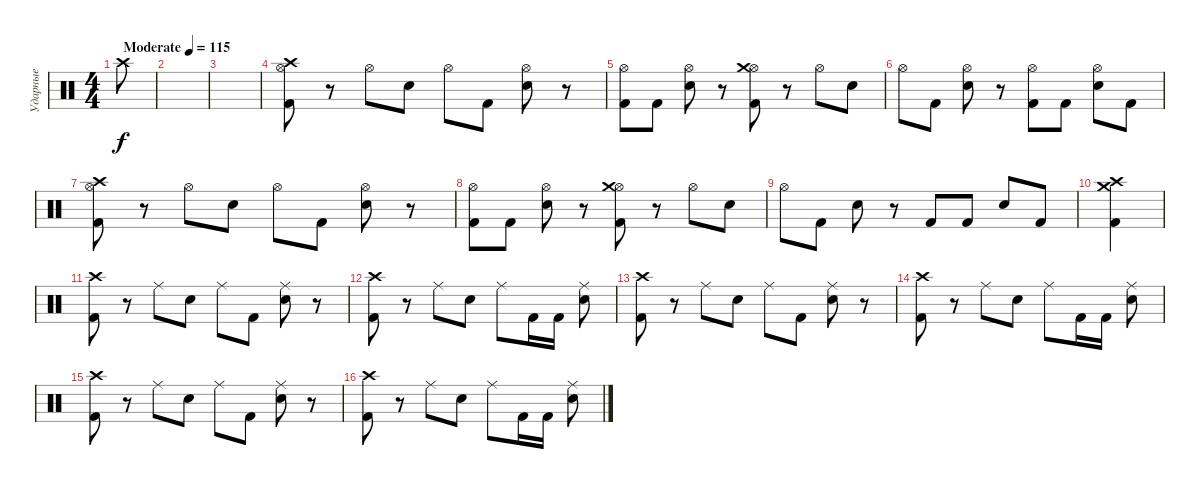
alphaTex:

\track ("Ударные" "Ударные") {instrument percussion}
\staff {score}
\articulation defaults
\ts (4 4)
\tempo (115 "Moderate")
\clef neutral
\ks c "Crash high (hit)".8{dy f}
|
|
|
("Kick (hit) 2" "Hi-Hat (open)" "Crash high (hit)").8 r.8 "Hi-Hat (open)".8 "Electric Snare (hit)".8 "Hi-Hat (open)".8 "Kick (hit) 2".8 ("Electric Snare (hit)" "Hi-Hat (open)").8 r.8 |
("Kick (hit) 2" "Hi-Hat (open)").8 "Kick (hit) 2".8 ("Electric Snare (hit)" "Hi-Hat (open)").8 r.8 ("Kick (hit) 2" "Hi-Hat (open)" "Crash medium (hit)").8 r.8 "Hi-Hat (open)".8 "Electric Snare (hit)".8 |
"Hi-Hat (open)".8 "Kick (hit) 2".8 ("Electric Snare (hit)" "Hi-Hat (open)").8 r.8 ("Kick (hit) 2" "Hi-Hat (open)").8 "Kick (hit) 2".8 ("Electric Snare (hit)" "Hi-Hat (open)").8 "Kick (hit) 2".8 |
("Kick (hit) 2" "Hi-Hat (open)" "Crash high (hit)").8 r.8 "Hi-Hat (open)".8 "Electric Snare (hit)".8 "Hi-Hat (open)".8 "Kick (hit) 2".8 ("Electric Snare (hit)" "Hi-Hat (open)").8 r.8 |
("Kick (hit) 2" "Hi-Hat (open)").8 "Kick (hit) 2".8 ("Electric Snare (hit)" "Hi-Hat (open)").8 r.8 ("Kick (hit) 2" "Hi-Hat (open)" "Crash medium (hit)").8 r.8 "Hi-Hat (open)".8 "Electric Snare (hit)".8 |
"Hi-Hat (open)".8 "Kick (hit) 2".8 "Electric Snare (hit)".8 r.8 "Kick (hit) 2".8 "Kick (hit) 2".8 "Electric Snare (hit)".8 "Kick (hit) 2".8 |
("Kick (hit) 2" "Crash high (hit)" "Crash medium (hit)").4 |
("Kick (hit) 2" "Crash high (hit)").8 r.8 "Ride (middle)".8 "Electric Snare (hit)".8 "Ride (middle)".8 "Kick (hit) 2".8 ("Electric Snare (hit)" "Ride (middle)").8 r.8 |
("Kick (hit) 2" "Crash high (hit)").8 r.8 "Ride (middle)".8 "Electric Snare (hit)".8 "Ride (middle)".8 "Kick (hit) 2".16 "Kick (hit) 2".16 ("Electric Snare (hit)" "Ride (middle)").8 |
("Kick (hit) 2" "Crash high (hit)").8 r.8 "Ride (middle)".8 "Electric Snare (hit)".8 "Ride (middle)".8 "Kick (hit) 2".8 ("Electric Snare (hit)" "Ride (middle)").8 r.8 |
("Kick (hit) 2" "Crash high (hit)").8 r.8 "Ride (middle)".8 "Electric Snare (hit)".8 "Ride (middle)".8 "Kick (hit) 2".16 "Kick (hit) 2".16 ("Electric Snare (hit)" "Ride (middle)").8 |
("Kick (hit) 2" "Crash high (hit)").8 r.8 "Ride (middle)".8 "Electric Snare (hit)".8 "Ride (middle)".8 "Kick (hit) 2".8 ("Electric Snare (hit)" "Ride (middle)").8 r.8 |
("Kick (hit) 2" "Crash high (hit)").8 r.8 "Ride (middle)".8 "Electric Snare (hit)".8 "Ride (middle)".8 "Kick (hit) 2".16 "Kick (hit) 2".16 ("Electric Snare (hit)" "Ride (middle)").8
